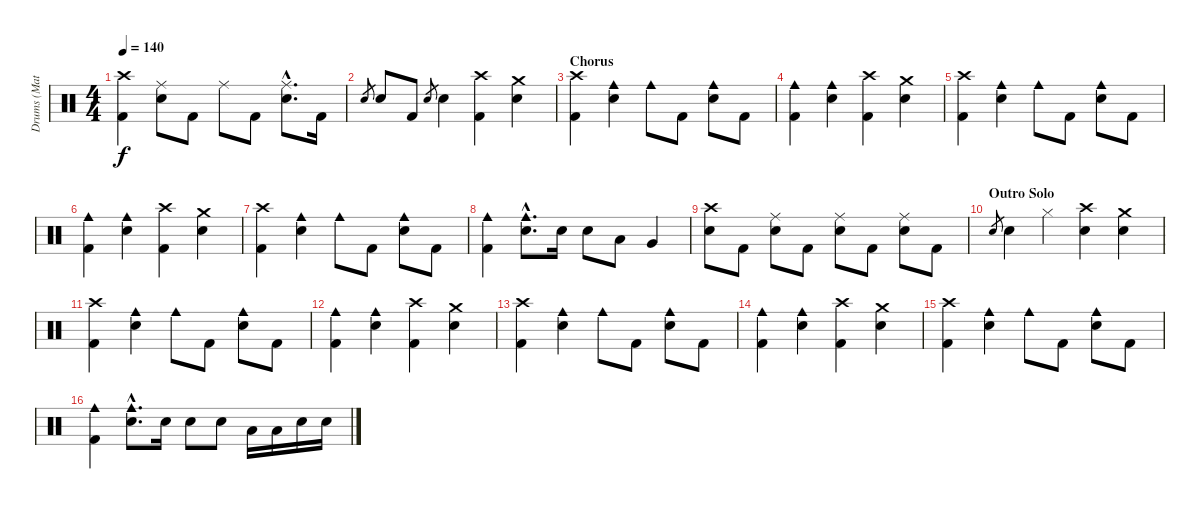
\track ("Drums (Matt)" "Drums (Mat") {instrument percussion}
\staff {score}
\articulation defaults
\ts (4 4)
\tempo 140
\clef neutral
\ks c
("Crash high (hit)" "Kick (hit) 2").4{dy f} ("Ride (middle)" "Snare (hit) 2").8 "Kick (hit) 2".8 "Ride (middle)".8 "Kick (hit) 2".8 ("Ride (middle)"{hac} "Snare (hit) 2"{hac}).8{d} "Kick (hit) 2".16 |
"Snare (hit) 2".8{gr} "Snare (hit) 2".8 "Kick (hit) 2".8 "Snare (hit) 2".8{gr} "Snare (hit) 2".4 ("Crash high (hit)" "Kick (hit) 2").4 ("Crash medium (hit)" "Snare (hit) 2").4 |
\section ("" "Chorus")
("Crash high (hit)" "Kick (hit) 2").4 ("Cowbell medium (hit)" "Snare (hit) 2").4 "Cowbell medium (hit)".8 "Kick (hit) 2".8 ("Cowbell medium (hit)" "Snare (hit) 2").8 "Kick (hit) 2".8 |
("Cowbell medium (hit)" "Kick (hit) 2").4 ("Cowbell medium (hit)" "Snare (hit) 2").4 ("Crash high (hit)" "Kick (hit) 2").4 ("Crash medium (hit)" "Snare (hit) 2").4 |
("Crash high (hit)" "Kick (hit) 2").4 ("Cowbell medium (hit)" "Snare (hit) 2").4 "Cowbell medium (hit)".8 "Kick (hit) 2".8 ("Cowbell medium (hit)" "Snare (hit) 2").8 "Kick (hit) 2".8 |
("Cowbell medium (hit)" "Kick (hit) 2").4 ("Cowbell medium (hit)" "Snare (hit) 2").4 ("Crash high (hit)" "Kick (hit) 2").4 ("Crash medium (hit)" "Snare (hit) 2").4 |
("Crash high (hit)" "Kick (hit) 2").4 ("Cowbell medium (hit)" "Snare (hit) 2").4 "Cowbell medium (hit)".8 "Kick (hit) 2".8 ("Cowbell medium (hit)" "Snare (hit) 2").8 "Kick (hit) 2".8 |
("Cowbell medium (hit)" "Kick (hit) 2").4 ("Cowbell medium (hit)"{hac} "Snare (hit) 2"{hac}).8{d} "Snare (hit) 2".16 "Snare (hit) 2".8 "Low Tom (hit)".8 "Very Low Tom (hit)".4 |
("Crash high (hit)" "Snare (hit) 2").8 "Kick (hit) 2".8 ("Ride (middle)" "Snare (hit) 2").8 "Kick (hit) 2".8 ("Ride (middle)" "Snare (hit) 2").8 "Kick (hit) 2".8 ("Ride (middle)" "Snare (hit) 2").8 "Kick (hit) 2".8 |
\section ("" "Outro Solo")
"Snare (hit) 2".8{gr} "Snare (hit) 2".4 "Hi-Hat (closed)".4 ("Crash high (hit)" "Snare (hit) 2").4 ("Crash medium (hit)" "Snare (hit) 2").4 |
("Crash high (hit)" "Kick (hit) 2").4 ("Cowbell medium (hit)" "Snare (hit) 2").4 "Cowbell medium (hit)".8 "Kick (hit) 2".8 ("Cowbell medium (hit)" "Snare (hit) 2").8 "Kick (hit) 2".8 |
("Cowbell medium (hit)" "Kick (hit) 2").4 ("Cowbell medium (hit)" "Snare (hit) 2").4 ("Crash high (hit)" "Kick (hit) 2").4 ("Crash medium (hit)" "Snare (hit) 2").4 |
("Crash high (hit)" "Kick (hit) 2").4 ("Cowbell medium (hit)" "Snare (hit) 2").4 "Cowbell medium (hit)".8 "Kick (hit) 2".8 ("Cowbell medium (hit)" "Snare (hit) 2").8 "Kick (hit) 2".8 |
("Cowbell medium (hit)" "Kick (hit) 2").4 ("Cowbell medium (hit)" "Snare (hit) 2").4 ("Crash high (hit)" "Kick (hit) 2").4 ("Crash medium (hit)" "Snare (hit) 2").4 |
("Crash high (hit)" "Kick (hit) 2").4 ("Cowbell medium (hit)" "Snare (hit) 2").4 "Cowbell medium (hit)".8 "Kick (hit) 2".8 ("Cowbell medium (hit)" "Snare (hit) 2").8 "Kick (hit) 2".8 |
("Cowbell medium (hit)" "Kick (hit) 2").4 ("Cowbell medium (hit)"{hac} "Snare (hit) 2"{hac}).8{d} "Snare (hit) 2".16 "Snare (hit) 2".8 "Snare (hit) 2".8 "Low Tom (hit)".16 "Low Tom (hit)".16 "Snare (hit) 2".16 "Snare (hit) 2".16
